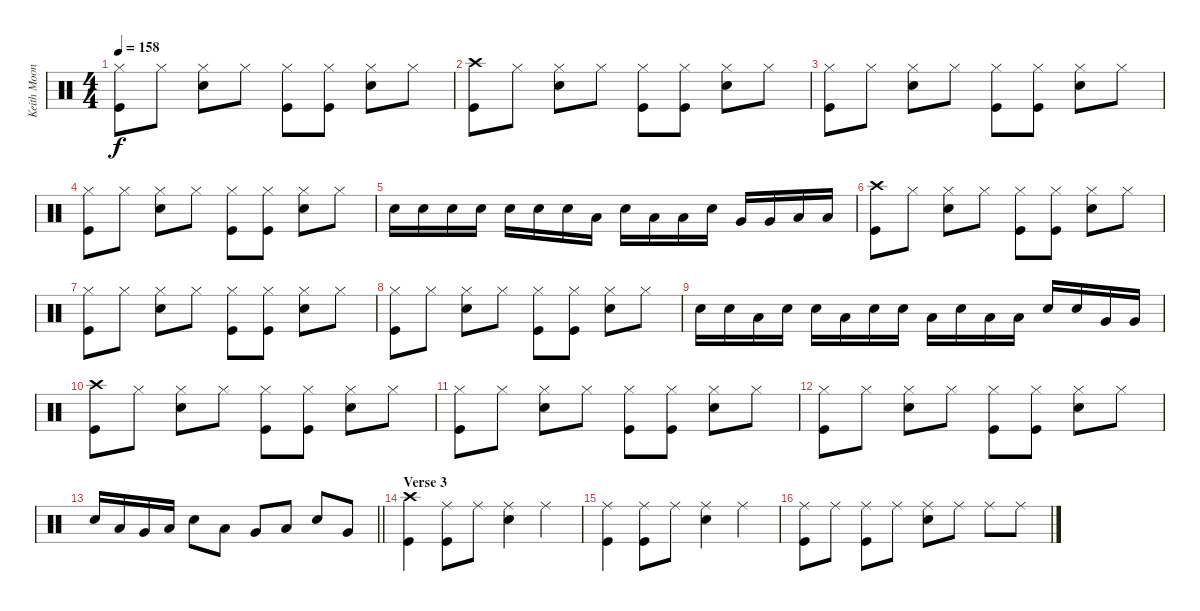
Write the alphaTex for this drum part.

\track ("Keith Moon" "Keith Moon") {instrument percussion}
\staff {score}
\articulation defaults
\ts (4 4)
\tempo 158
\clef neutral
\ks c
("Hi-Hat (closed)" "Kick (hit)").8{dy f} "Hi-Hat (closed)".8 ("Hi-Hat (closed)" "Snare (hit) 2").8 "Hi-Hat (closed)".8 ("Hi-Hat (closed)" "Kick (hit)").8 ("Hi-Hat (closed)" "Kick (hit)").8 ("Hi-Hat (closed)" "Snare (hit) 2").8 "Hi-Hat (closed)".8 |
("Crash high (hit)" "Kick (hit)").8 "Hi-Hat (closed)".8 ("Hi-Hat (closed)" "Snare (hit) 2").8 "Hi-Hat (closed)".8 ("Hi-Hat (closed)" "Kick (hit)").8 ("Hi-Hat (closed)" "Kick (hit)").8 ("Hi-Hat (closed)" "Snare (hit) 2").8 "Hi-Hat (closed)".8 |
("Hi-Hat (closed)" "Kick (hit)").8 "Hi-Hat (closed)".8 ("Hi-Hat (closed)" "Snare (hit) 2").8 "Hi-Hat (closed)".8 ("Hi-Hat (closed)" "Kick (hit)").8 ("Hi-Hat (closed)" "Kick (hit)").8 ("Hi-Hat (closed)" "Snare (hit) 2").8 "Hi-Hat (closed)".8 |
("Hi-Hat (closed)" "Kick (hit)").8 "Hi-Hat (closed)".8 ("Hi-Hat (closed)" "Snare (hit) 2").8 "Hi-Hat (closed)".8 ("Hi-Hat (closed)" "Kick (hit)").8 ("Hi-Hat (closed)" "Kick (hit)").8 ("Hi-Hat (closed)" "Snare (hit) 2").8 "Hi-Hat (closed)".8 |
"Snare (hit) 2".16 "Snare (hit) 2".16 "Snare (hit) 2".16 "Snare (hit) 2".16 "Snare (hit) 2".16 "Snare (hit) 2".16 "Snare (hit) 2".16 "Low Tom (hit)".16 "Snare (hit) 2".16 "Low Tom (hit)".16 "Low Tom (hit)".16 "Snare (hit) 2".16 "Very Low Tom (hit)".16 "Very Low Tom (hit)".16 "Low Floor Tom (hit)".16 "Low Floor Tom (hit)".16 |
("Crash high (hit)" "Kick (hit)").8 "Hi-Hat (closed)".8 ("Hi-Hat (closed)" "Snare (hit) 2").8 "Hi-Hat (closed)".8 ("Hi-Hat (closed)" "Kick (hit)").8 ("Hi-Hat (closed)" "Kick (hit)").8 ("Hi-Hat (closed)" "Snare (hit) 2").8 "Hi-Hat (closed)".8 |
("Hi-Hat (closed)" "Kick (hit)").8 "Hi-Hat (closed)".8 ("Hi-Hat (closed)" "Snare (hit) 2").8 "Hi-Hat (closed)".8 ("Hi-Hat (closed)" "Kick (hit)").8 ("Hi-Hat (closed)" "Kick (hit)").8 ("Hi-Hat (closed)" "Snare (hit) 2").8 "Hi-Hat (closed)".8 |
("Hi-Hat (closed)" "Kick (hit)").8 "Hi-Hat (closed)".8 ("Hi-Hat (closed)" "Snare (hit) 2").8 "Hi-Hat (closed)".8 ("Hi-Hat (closed)" "Kick (hit)").8 ("Hi-Hat (closed)" "Kick (hit)").8 ("Hi-Hat (closed)" "Snare (hit) 2").8 "Hi-Hat (closed)".8 |
"Snare (hit) 2".16 "Snare (hit) 2".16 "Low Tom (hit)".16 "Snare (hit) 2".16 "Snare (hit) 2".16 "Low Tom (hit)".16 "Snare (hit) 2".16 "Snare (hit) 2".16 "Low Tom (hit)".16 "Snare (hit) 2".16 "Low Tom (hit)".16 "Low Tom (hit)".16 "Snare (hit) 2".16 "Snare (hit) 2".16 "Very Low Tom (hit)".16 "Very Low Tom (hit)".16 |
("Crash high (hit)" "Kick (hit)").8 "Hi-Hat (closed)".8 ("Hi-Hat (closed)" "Snare (hit) 2").8 "Hi-Hat (closed)".8 ("Hi-Hat (closed)" "Kick (hit)").8 ("Hi-Hat (closed)" "Kick (hit)").8 ("Hi-Hat (closed)" "Snare (hit) 2").8 "Hi-Hat (closed)".8 |
("Hi-Hat (closed)" "Kick (hit)").8 "Hi-Hat (closed)".8 ("Hi-Hat (closed)" "Snare (hit) 2").8 "Hi-Hat (closed)".8 ("Hi-Hat (closed)" "Kick (hit)").8 ("Hi-Hat (closed)" "Kick (hit)").8 ("Hi-Hat (closed)" "Snare (hit) 2").8 "Hi-Hat (closed)".8 |
("Hi-Hat (closed)" "Kick (hit)").8 "Hi-Hat (closed)".8 ("Hi-Hat (closed)" "Snare (hit) 2").8 "Hi-Hat (closed)".8 ("Hi-Hat (closed)" "Kick (hit)").8 ("Hi-Hat (closed)" "Kick (hit)").8 ("Hi-Hat (closed)" "Snare (hit) 2").8 "Hi-Hat (closed)".8 |
\barLineRight lightlight "Snare (hit) 2".16 "Low Tom (hit)".16 "Very Low Tom (hit)".16 "Low Tom (hit)".16 "Snare (hit) 2".8 "Low Tom (hit)".8 "Very Low Tom (hit)".8 "Low Tom (hit)".8 "Snare (hit) 2".8 "Very Low Tom (hit)".8
|
\section ("" "Verse 3")
("Crash high (hit)" "Kick (hit)").4 ("Ride (middle)" "Kick (hit)").8 "Ride (middle)".8 ("Ride (middle)" "Snare (hit) 2").4 "Ride (middle)".4 |
("Ride (middle)" "Kick (hit)").4 ("Ride (middle)" "Kick (hit)").8 "Ride (middle)".8 ("Ride (middle)" "Snare (hit) 2").4 "Ride (middle)".4 |
("Ride (middle)" "Kick (hit)").8 "Ride (middle)".8 ("Ride (middle)" "Kick (hit)").8 "Ride (middle)".8 ("Ride (middle)" "Snare (hit) 2").8 "Ride (middle)".8 "Ride (middle)".8 "Ride (middle)".8
